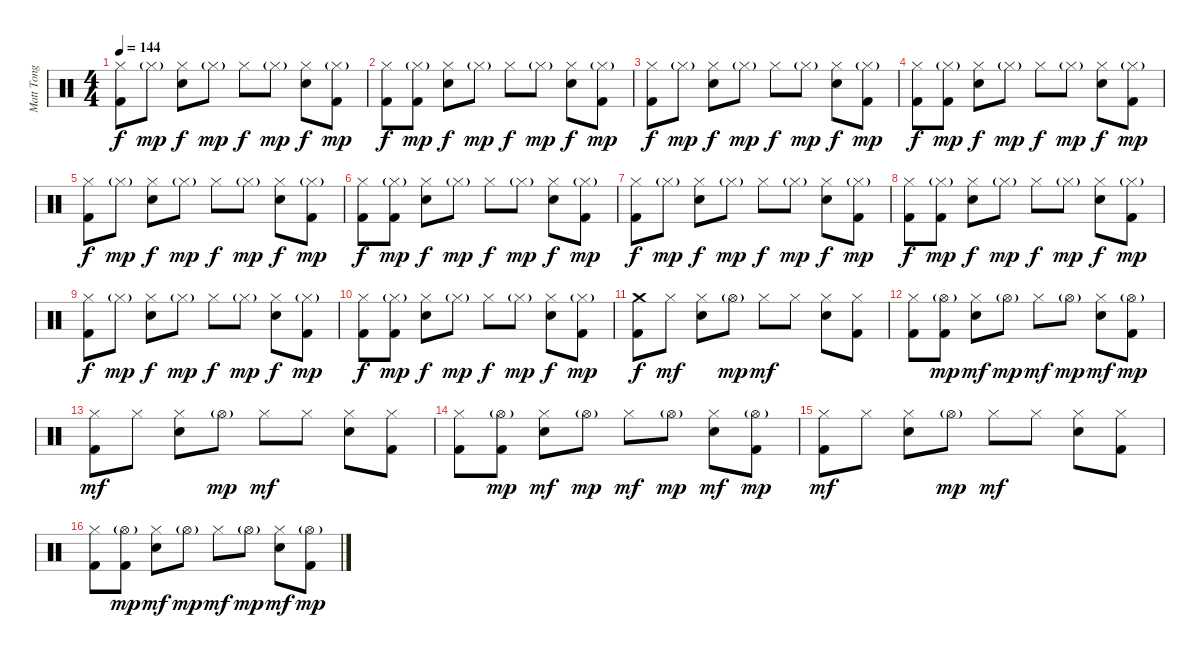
\track ("Matt Tong" "Matt Tong") {instrument percussion}
\staff {score}
\articulation defaults
\ts (4 4)
\tempo 144
\clef neutral
\ks c
("Hi-Hat (closed)" "Kick (hit) 2").8{dy f} "Hi-Hat (closed)"{g}.8{dy mp} ("Hi-Hat (closed)" "Electric Snare (hit)").8{dy f} "Hi-Hat (closed)"{g}.8{dy mp} "Hi-Hat (closed)".8{dy f} "Hi-Hat (closed)"{g}.8{dy mp} ("Hi-Hat (closed)" "Electric Snare (hit)").8{dy f} ("Hi-Hat (closed)"{g} "Kick (hit) 2").8{dy mp} |
("Hi-Hat (closed)" "Kick (hit) 2").8{dy f} ("Hi-Hat (closed)"{g} "Kick (hit) 2").8{dy mp} ("Hi-Hat (closed)" "Electric Snare (hit)").8{dy f} "Hi-Hat (closed)"{g}.8{dy mp} "Hi-Hat (closed)".8{dy f} "Hi-Hat (closed)"{g}.8{dy mp} ("Hi-Hat (closed)" "Electric Snare (hit)").8{dy f} ("Hi-Hat (closed)"{g} "Kick (hit) 2").8{dy mp} |
("Hi-Hat (closed)" "Kick (hit) 2").8{dy f} "Hi-Hat (closed)"{g}.8{dy mp} ("Hi-Hat (closed)" "Electric Snare (hit)").8{dy f} "Hi-Hat (closed)"{g}.8{dy mp} "Hi-Hat (closed)".8{dy f} "Hi-Hat (closed)"{g}.8{dy mp} ("Hi-Hat (closed)" "Electric Snare (hit)").8{dy f} ("Hi-Hat (closed)"{g} "Kick (hit) 2").8{dy mp} |
("Hi-Hat (closed)" "Kick (hit) 2").8{dy f} ("Hi-Hat (closed)"{g} "Kick (hit) 2").8{dy mp} ("Hi-Hat (closed)" "Electric Snare (hit)").8{dy f} "Hi-Hat (closed)"{g}.8{dy mp} "Hi-Hat (closed)".8{dy f} "Hi-Hat (closed)"{g}.8{dy mp} ("Hi-Hat (closed)" "Electric Snare (hit)").8{dy f} ("Hi-Hat (closed)"{g} "Kick (hit) 2").8{dy mp} |
("Hi-Hat (closed)" "Kick (hit) 2").8{dy f} "Hi-Hat (closed)"{g}.8{dy mp} ("Hi-Hat (closed)" "Electric Snare (hit)").8{dy f} "Hi-Hat (closed)"{g}.8{dy mp} "Hi-Hat (closed)".8{dy f} "Hi-Hat (closed)"{g}.8{dy mp} ("Hi-Hat (closed)" "Electric Snare (hit)").8{dy f} ("Hi-Hat (closed)"{g} "Kick (hit) 2").8{dy mp} |
("Hi-Hat (closed)" "Kick (hit) 2").8{dy f} ("Hi-Hat (closed)"{g} "Kick (hit) 2").8{dy mp} ("Hi-Hat (closed)" "Electric Snare (hit)").8{dy f} "Hi-Hat (closed)"{g}.8{dy mp} "Hi-Hat (closed)".8{dy f} "Hi-Hat (closed)"{g}.8{dy mp} ("Hi-Hat (closed)" "Electric Snare (hit)").8{dy f} ("Hi-Hat (closed)"{g} "Kick (hit) 2").8{dy mp} |
("Hi-Hat (closed)" "Kick (hit) 2").8{dy f} "Hi-Hat (closed)"{g}.8{dy mp} ("Hi-Hat (closed)" "Electric Snare (hit)").8{dy f} "Hi-Hat (closed)"{g}.8{dy mp} "Hi-Hat (closed)".8{dy f} "Hi-Hat (closed)"{g}.8{dy mp} ("Hi-Hat (closed)" "Electric Snare (hit)").8{dy f} ("Hi-Hat (closed)"{g} "Kick (hit) 2").8{dy mp} |
("Hi-Hat (closed)" "Kick (hit) 2").8{dy f} ("Hi-Hat (closed)"{g} "Kick (hit) 2").8{dy mp} ("Hi-Hat (closed)" "Electric Snare (hit)").8{dy f} "Hi-Hat (closed)"{g}.8{dy mp} "Hi-Hat (closed)".8{dy f} "Hi-Hat (closed)"{g}.8{dy mp} ("Hi-Hat (closed)" "Electric Snare (hit)").8{dy f} ("Hi-Hat (closed)"{g} "Kick (hit) 2").8{dy mp} |
("Hi-Hat (closed)" "Kick (hit) 2").8{dy f} "Hi-Hat (closed)"{g}.8{dy mp} ("Hi-Hat (closed)" "Electric Snare (hit)").8{dy f} "Hi-Hat (closed)"{g}.8{dy mp} "Hi-Hat (closed)".8{dy f} "Hi-Hat (closed)"{g}.8{dy mp} ("Hi-Hat (closed)" "Electric Snare (hit)").8{dy f} ("Hi-Hat (closed)"{g} "Kick (hit) 2").8{dy mp} |
("Hi-Hat (closed)" "Kick (hit) 2").8{dy f} ("Hi-Hat (closed)"{g} "Kick (hit) 2").8{dy mp} ("Hi-Hat (closed)" "Electric Snare (hit)").8{dy f} "Hi-Hat (closed)"{g}.8{dy mp} "Hi-Hat (closed)".8{dy f} "Hi-Hat (closed)"{g}.8{dy mp} ("Hi-Hat (closed)" "Electric Snare (hit)").8{dy f} ("Hi-Hat (closed)"{g} "Kick (hit) 2").8{dy mp} |
("Crash medium (hit)" "Kick (hit) 2").8{dy f} "Hi-Hat (closed)".8{dy mf} ("Hi-Hat (closed)" "Electric Snare (hit)").8 "Hi-Hat (open)"{g}.8{dy mp} "Hi-Hat (closed)".8{dy mf} "Hi-Hat (closed)".8 ("Hi-Hat (closed)" "Electric Snare (hit)").8 ("Hi-Hat (closed)" "Kick (hit) 2").8 |
("Hi-Hat (closed)" "Kick (hit) 2").8 ("Hi-Hat (open)"{g} "Kick (hit) 2").8{dy mp} ("Hi-Hat (closed)" "Electric Snare (hit)").8{dy mf} "Hi-Hat (open)"{g}.8{dy mp} "Hi-Hat (closed)".8{dy mf} "Hi-Hat (open)"{g}.8{dy mp} ("Hi-Hat (closed)" "Electric Snare (hit)").8{dy mf} ("Hi-Hat (open)"{g} "Kick (hit) 2").8{dy mp} |
("Hi-Hat (closed)" "Kick (hit) 2").8{dy mf} "Hi-Hat (closed)".8 ("Hi-Hat (closed)" "Electric Snare (hit)").8 "Hi-Hat (open)"{g}.8{dy mp} "Hi-Hat (closed)".8{dy mf} "Hi-Hat (closed)".8 ("Hi-Hat (closed)" "Electric Snare (hit)").8 ("Hi-Hat (closed)" "Kick (hit) 2").8 |
("Hi-Hat (closed)" "Kick (hit) 2").8 ("Hi-Hat (open)"{g} "Kick (hit) 2").8{dy mp} ("Hi-Hat (closed)" "Electric Snare (hit)").8{dy mf} "Hi-Hat (open)"{g}.8{dy mp} "Hi-Hat (closed)".8{dy mf} "Hi-Hat (open)"{g}.8{dy mp} ("Hi-Hat (closed)" "Electric Snare (hit)").8{dy mf} ("Hi-Hat (open)"{g} "Kick (hit) 2").8{dy mp} |
("Hi-Hat (closed)" "Kick (hit) 2").8{dy mf} "Hi-Hat (closed)".8 ("Hi-Hat (closed)" "Electric Snare (hit)").8 "Hi-Hat (open)"{g}.8{dy mp} "Hi-Hat (closed)".8{dy mf} "Hi-Hat (closed)".8 ("Hi-Hat (closed)" "Electric Snare (hit)").8 ("Hi-Hat (closed)" "Kick (hit) 2").8 |
("Hi-Hat (closed)" "Kick (hit) 2").8 ("Hi-Hat (open)"{g} "Kick (hit) 2").8{dy mp} ("Hi-Hat (closed)" "Electric Snare (hit)").8{dy mf} "Hi-Hat (open)"{g}.8{dy mp} "Hi-Hat (closed)".8{dy mf} "Hi-Hat (open)"{g}.8{dy mp} ("Hi-Hat (closed)" "Electric Snare (hit)").8{dy mf} ("Hi-Hat (open)"{g} "Kick (hit) 2").8{dy mp}
